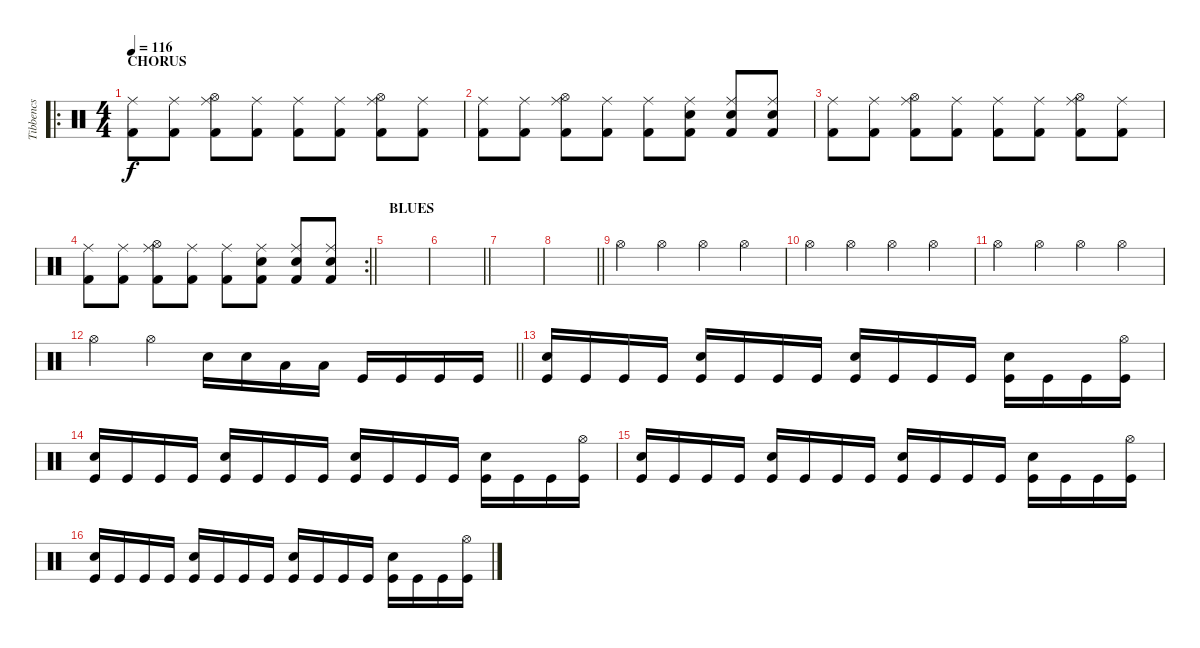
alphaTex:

\track ("Tibbencs" "Tibbencs") {instrument percussion}
\staff {score}
\articulation defaults
\ro
\ts (4 4)
\section ("" "CHORUS")
\tempo 116
\clef neutral
\ks c
("Kick (hit) 2" "Ride (middle)").8{dy f} ("Kick (hit) 2" "Ride (middle)").8 ("Kick (hit) 2" "Hi-Hat (open)" "Ride (middle)").8 ("Kick (hit) 2" "Ride (middle)").8 ("Kick (hit) 2" "Ride (middle)").8 ("Kick (hit) 2" "Ride (middle)").8 ("Kick (hit) 2" "Hi-Hat (open)" "Ride (middle)").8 ("Kick (hit) 2" "Ride (middle)").8 |
("Kick (hit) 2" "Ride (middle)").8 ("Kick (hit) 2" "Ride (middle)").8 ("Kick (hit) 2" "Hi-Hat (open)" "Ride (middle)").8 ("Kick (hit) 2" "Ride (middle)").8 ("Kick (hit) 2" "Ride (middle)").8 ("Kick (hit) 2" "Ride (middle)" "Snare (hit) 2").8 ("Kick (hit) 2" "Ride (middle)" "Snare (hit) 2").8 ("Kick (hit) 2" "Ride (middle)" "Snare (hit) 2").8 |
("Kick (hit) 2" "Ride (middle)").8 ("Kick (hit) 2" "Ride (middle)").8 ("Kick (hit) 2" "Hi-Hat (open)" "Ride (middle)").8 ("Kick (hit) 2" "Ride (middle)").8 ("Kick (hit) 2" "Ride (middle)").8 ("Kick (hit) 2" "Ride (middle)").8 ("Kick (hit) 2" "Hi-Hat (open)" "Ride (middle)").8 ("Kick (hit) 2" "Ride (middle)").8 |
\rc 2
\barLineRight lightlight
("Kick (hit) 2" "Ride (middle)").8 ("Kick (hit) 2" "Ride (middle)").8 ("Kick (hit) 2" "Hi-Hat (open)" "Ride (middle)").8 ("Kick (hit) 2" "Ride (middle)").8 ("Kick (hit) 2" "Ride (middle)").8 ("Kick (hit) 2" "Ride (middle)" "Snare (hit) 2").8 ("Kick (hit) 2" "Ride (middle)" "Snare (hit) 2").8 ("Kick (hit) 2" "Ride (middle)" "Snare (hit) 2").8 |
\section ("" "BLUES")
|
\barLineRight lightlight
|
|
\barLineRight lightlight
|
"Hi-Hat (open)".4 "Hi-Hat (open)".4 "Hi-Hat (open)".4 "Hi-Hat (open)".4 |
"Hi-Hat (open)".4 "Hi-Hat (open)".4 "Hi-Hat (open)".4 "Hi-Hat (open)".4 |
"Hi-Hat (open)".4 "Hi-Hat (open)".4 "Hi-Hat (open)".4 "Hi-Hat (open)".4 |
\barLineRight lightlight "Hi-Hat (open)".4 "Hi-Hat (open)".4 "Snare (hit) 2".16 "Snare (hit) 2".16 "Low Tom (hit)".16 "Low Tom (hit)".16 "Kick (hit)".16 "Kick (hit)".16 "Kick (hit)".16 "Kick (hit)".16
|
("Kick (hit)" "Snare (hit) 2").16 "Kick (hit)".16 "Kick (hit)".16 "Kick (hit)".16 ("Kick (hit)" "Snare (hit) 2").16 "Kick (hit)".16 "Kick (hit)".16 "Kick (hit)".16 ("Kick (hit)" "Snare (hit) 2").16 "Kick (hit)".16 "Kick (hit)".16 "Kick (hit)".16 ("Kick (hit)" "Snare (hit) 2").16 "Kick (hit)".16 "Kick (hit)".16 ("Kick (hit)" "Hi-Hat (open)").16 |
("Kick (hit)" "Snare (hit) 2").16 "Kick (hit)".16 "Kick (hit)".16 "Kick (hit)".16 ("Kick (hit)" "Snare (hit) 2").16 "Kick (hit)".16 "Kick (hit)".16 "Kick (hit)".16 ("Kick (hit)" "Snare (hit) 2").16 "Kick (hit)".16 "Kick (hit)".16 "Kick (hit)".16 ("Kick (hit)" "Snare (hit) 2").16 "Kick (hit)".16 "Kick (hit)".16 ("Kick (hit)" "Hi-Hat (open)").16 |
("Kick (hit)" "Snare (hit) 2").16 "Kick (hit)".16 "Kick (hit)".16 "Kick (hit)".16 ("Kick (hit)" "Snare (hit) 2").16 "Kick (hit)".16 "Kick (hit)".16 "Kick (hit)".16 ("Kick (hit)" "Snare (hit) 2").16 "Kick (hit)".16 "Kick (hit)".16 "Kick (hit)".16 ("Kick (hit)" "Snare (hit) 2").16 "Kick (hit)".16 "Kick (hit)".16 ("Kick (hit)" "Hi-Hat (open)").16 |
("Kick (hit)" "Snare (hit) 2").16 "Kick (hit)".16 "Kick (hit)".16 "Kick (hit)".16 ("Kick (hit)" "Snare (hit) 2").16 "Kick (hit)".16 "Kick (hit)".16 "Kick (hit)".16 ("Kick (hit)" "Snare (hit) 2").16 "Kick (hit)".16 "Kick (hit)".16 "Kick (hit)".16 ("Kick (hit)" "Snare (hit) 2").16 "Kick (hit)".16 "Kick (hit)".16 ("Kick (hit)" "Hi-Hat (open)").16
